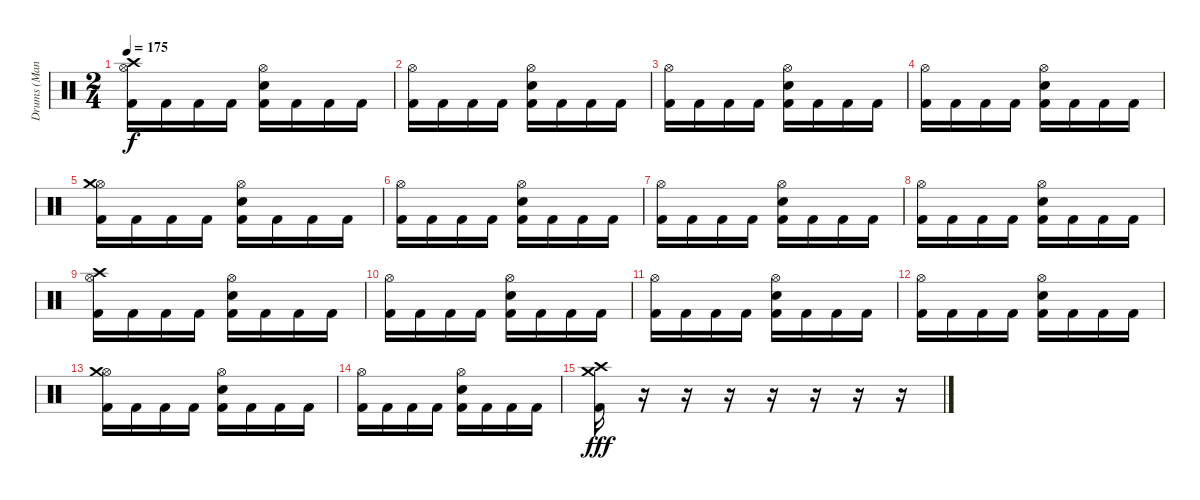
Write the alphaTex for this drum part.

\track ("Drums (Mancino)" "Drums (Man") {instrument percussion}
\staff {score}
\articulation defaults
\ts (2 4)
\tempo 175
\clef neutral
\ks c
("Hi-Hat (open)" "Crash high (hit)" "Kick (hit) 2").16{dy f} "Kick (hit) 2".16 "Kick (hit) 2".16 "Kick (hit) 2".16 ("Hi-Hat (open)" "Electric Snare (hit)" "Kick (hit) 2").16 "Kick (hit) 2".16 "Kick (hit) 2".16 "Kick (hit) 2".16 |
("Hi-Hat (open)" "Kick (hit) 2").16 "Kick (hit) 2".16 "Kick (hit) 2".16 "Kick (hit) 2".16 ("Hi-Hat (open)" "Electric Snare (hit)" "Kick (hit) 2").16 "Kick (hit) 2".16 "Kick (hit) 2".16 "Kick (hit) 2".16 |
("Hi-Hat (open)" "Kick (hit) 2").16 "Kick (hit) 2".16 "Kick (hit) 2".16 "Kick (hit) 2".16 ("Hi-Hat (open)" "Electric Snare (hit)" "Kick (hit) 2").16 "Kick (hit) 2".16 "Kick (hit) 2".16 "Kick (hit) 2".16 |
("Hi-Hat (open)" "Kick (hit) 2").16 "Kick (hit) 2".16 "Kick (hit) 2".16 "Kick (hit) 2".16 ("Hi-Hat (open)" "Electric Snare (hit)" "Kick (hit) 2").16 "Kick (hit) 2".16 "Kick (hit) 2".16 "Kick (hit) 2".16 |
("Hi-Hat (open)" "Crash medium (hit)" "Kick (hit) 2").16 "Kick (hit) 2".16 "Kick (hit) 2".16 "Kick (hit) 2".16 ("Hi-Hat (open)" "Electric Snare (hit)" "Kick (hit) 2").16 "Kick (hit) 2".16 "Kick (hit) 2".16 "Kick (hit) 2".16 |
("Hi-Hat (open)" "Kick (hit) 2").16 "Kick (hit) 2".16 "Kick (hit) 2".16 "Kick (hit) 2".16 ("Hi-Hat (open)" "Electric Snare (hit)" "Kick (hit) 2").16 "Kick (hit) 2".16 "Kick (hit) 2".16 "Kick (hit) 2".16 |
("Hi-Hat (open)" "Kick (hit) 2").16 "Kick (hit) 2".16 "Kick (hit) 2".16 "Kick (hit) 2".16 ("Hi-Hat (open)" "Electric Snare (hit)" "Kick (hit) 2").16 "Kick (hit) 2".16 "Kick (hit) 2".16 "Kick (hit) 2".16 |
("Hi-Hat (open)" "Kick (hit) 2").16 "Kick (hit) 2".16 "Kick (hit) 2".16 "Kick (hit) 2".16 ("Hi-Hat (open)" "Electric Snare (hit)" "Kick (hit) 2").16 "Kick (hit) 2".16 "Kick (hit) 2".16 "Kick (hit) 2".16 |
("Hi-Hat (open)" "Crash high (hit)" "Kick (hit) 2").16 "Kick (hit) 2".16 "Kick (hit) 2".16 "Kick (hit) 2".16 ("Hi-Hat (open)" "Electric Snare (hit)" "Kick (hit) 2").16 "Kick (hit) 2".16 "Kick (hit) 2".16 "Kick (hit) 2".16 |
("Hi-Hat (open)" "Kick (hit) 2").16 "Kick (hit) 2".16 "Kick (hit) 2".16 "Kick (hit) 2".16 ("Hi-Hat (open)" "Electric Snare (hit)" "Kick (hit) 2").16 "Kick (hit) 2".16 "Kick (hit) 2".16 "Kick (hit) 2".16 |
("Hi-Hat (open)" "Kick (hit) 2").16 "Kick (hit) 2".16 "Kick (hit) 2".16 "Kick (hit) 2".16 ("Hi-Hat (open)" "Electric Snare (hit)" "Kick (hit) 2").16 "Kick (hit) 2".16 "Kick (hit) 2".16 "Kick (hit) 2".16 |
("Hi-Hat (open)" "Kick (hit) 2").16 "Kick (hit) 2".16 "Kick (hit) 2".16 "Kick (hit) 2".16 ("Hi-Hat (open)" "Electric Snare (hit)" "Kick (hit) 2").16 "Kick (hit) 2".16 "Kick (hit) 2".16 "Kick (hit) 2".16 |
("Hi-Hat (open)" "Crash medium (hit)" "Kick (hit) 2").16 "Kick (hit) 2".16 "Kick (hit) 2".16 "Kick (hit) 2".16 ("Hi-Hat (open)" "Electric Snare (hit)" "Kick (hit) 2").16 "Kick (hit) 2".16 "Kick (hit) 2".16 "Kick (hit) 2".16 |
("Hi-Hat (open)" "Kick (hit) 2").16 "Kick (hit) 2".16 "Kick (hit) 2".16 "Kick (hit) 2".16 ("Hi-Hat (open)" "Electric Snare (hit)" "Kick (hit) 2").16 "Kick (hit) 2".16 "Kick (hit) 2".16 "Kick (hit) 2".16 |
("Crash medium (hit)" "Crash high (hit)" "Kick (hit) 2").16{dy fff} r.16 r.16 r.16 r.16 r.16 r.16 r.16
